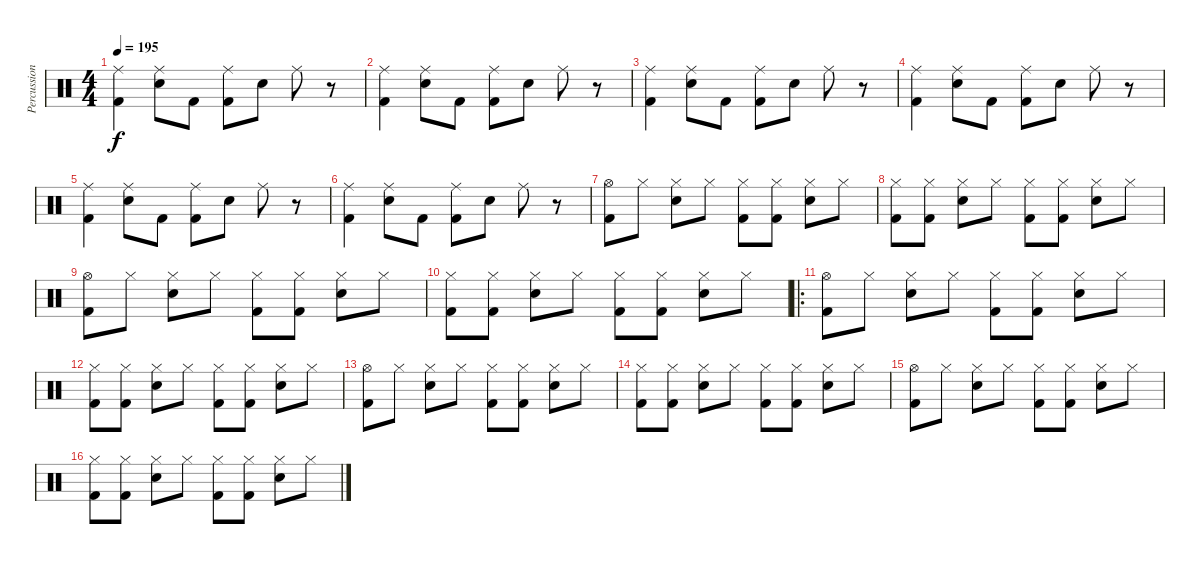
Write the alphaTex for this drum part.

\track ("Percussion" "Percussion") {instrument percussion}
\staff {score}
\articulation defaults
\ts (4 4)
\tempo 195
\clef neutral
\ks c
("Ride (middle)" "Kick (hit) 2").4{dy f} ("Ride (middle)" "Snare (hit) 2").8 "Kick (hit) 2".8 ("Ride (middle)" "Kick (hit) 2").8 "Snare (hit) 2".8 "Ride (middle)".8 r.8 |
("Ride (middle)" "Kick (hit) 2").4 ("Ride (middle)" "Snare (hit) 2").8 "Kick (hit) 2".8 ("Ride (middle)" "Kick (hit) 2").8 "Snare (hit) 2".8 "Ride (middle)".8 r.8 |
("Ride (middle)" "Kick (hit) 2").4 ("Ride (middle)" "Snare (hit) 2").8 "Kick (hit) 2".8 ("Ride (middle)" "Kick (hit) 2").8 "Snare (hit) 2".8 "Ride (middle)".8 r.8 |
("Ride (middle)" "Kick (hit) 2").4 ("Ride (middle)" "Snare (hit) 2").8 "Kick (hit) 2".8 ("Ride (middle)" "Kick (hit) 2").8 "Snare (hit) 2".8 "Ride (middle)".8 r.8 |
("Ride (middle)" "Kick (hit) 2").4 ("Ride (middle)" "Snare (hit) 2").8 "Kick (hit) 2".8 ("Ride (middle)" "Kick (hit) 2").8 "Snare (hit) 2".8 "Ride (middle)".8 r.8 |
("Ride (middle)" "Kick (hit) 2").4 ("Ride (middle)" "Snare (hit) 2").8 "Kick (hit) 2".8 ("Ride (middle)" "Kick (hit) 2").8 "Snare (hit) 2".8 "Ride (middle)".8 r.8 |
("Hi-Hat (open)" "Kick (hit) 2").8 "Hi-Hat (closed)".8 ("Hi-Hat (closed)" "Snare (hit) 2").8 "Hi-Hat (closed)".8 ("Hi-Hat (closed)" "Kick (hit) 2").8 ("Hi-Hat (closed)" "Kick (hit) 2").8 ("Hi-Hat (closed)" "Snare (hit) 2").8 "Hi-Hat (closed)".8 |
("Hi-Hat (closed)" "Kick (hit) 2").8 ("Hi-Hat (closed)" "Kick (hit) 2").8 ("Hi-Hat (closed)" "Snare (hit) 2").8 "Hi-Hat (closed)".8 ("Hi-Hat (closed)" "Kick (hit) 2").8 ("Hi-Hat (closed)" "Kick (hit) 2").8 ("Hi-Hat (closed)" "Snare (hit) 2").8 "Hi-Hat (closed)".8 |
("Hi-Hat (open)" "Kick (hit) 2").8 "Hi-Hat (closed)".8 ("Hi-Hat (closed)" "Snare (hit) 2").8 "Hi-Hat (closed)".8 ("Hi-Hat (closed)" "Kick (hit) 2").8 ("Hi-Hat (closed)" "Kick (hit) 2").8 ("Hi-Hat (closed)" "Snare (hit) 2").8 "Hi-Hat (closed)".8 |
("Hi-Hat (closed)" "Kick (hit) 2").8 ("Hi-Hat (closed)" "Kick (hit) 2").8 ("Hi-Hat (closed)" "Snare (hit) 2").8 "Hi-Hat (closed)".8 ("Hi-Hat (closed)" "Kick (hit) 2").8 ("Hi-Hat (closed)" "Kick (hit) 2").8 ("Hi-Hat (closed)" "Snare (hit) 2").8 "Hi-Hat (closed)".8 |
\ro
("Hi-Hat (open)" "Kick (hit) 2").8 "Hi-Hat (closed)".8 ("Hi-Hat (closed)" "Snare (hit) 2").8 "Hi-Hat (closed)".8 ("Hi-Hat (closed)" "Kick (hit) 2").8 ("Hi-Hat (closed)" "Kick (hit) 2").8 ("Hi-Hat (closed)" "Snare (hit) 2").8 "Hi-Hat (closed)".8 |
("Hi-Hat (closed)" "Kick (hit) 2").8 ("Hi-Hat (closed)" "Kick (hit) 2").8 ("Hi-Hat (closed)" "Snare (hit) 2").8 "Hi-Hat (closed)".8 ("Hi-Hat (closed)" "Kick (hit) 2").8 ("Hi-Hat (closed)" "Kick (hit) 2").8 ("Hi-Hat (closed)" "Snare (hit) 2").8 "Hi-Hat (closed)".8 |
("Hi-Hat (open)" "Kick (hit) 2").8 "Hi-Hat (closed)".8 ("Hi-Hat (closed)" "Snare (hit) 2").8 "Hi-Hat (closed)".8 ("Hi-Hat (closed)" "Kick (hit) 2").8 ("Hi-Hat (closed)" "Kick (hit) 2").8 ("Hi-Hat (closed)" "Snare (hit) 2").8 "Hi-Hat (closed)".8 |
("Hi-Hat (closed)" "Kick (hit) 2").8 ("Hi-Hat (closed)" "Kick (hit) 2").8 ("Hi-Hat (closed)" "Snare (hit) 2").8 "Hi-Hat (closed)".8 ("Hi-Hat (closed)" "Kick (hit) 2").8 ("Hi-Hat (closed)" "Kick (hit) 2").8 ("Hi-Hat (closed)" "Snare (hit) 2").8 "Hi-Hat (closed)".8 |
("Hi-Hat (open)" "Kick (hit) 2").8 "Hi-Hat (closed)".8 ("Hi-Hat (closed)" "Snare (hit) 2").8 "Hi-Hat (closed)".8 ("Hi-Hat (closed)" "Kick (hit) 2").8 ("Hi-Hat (closed)" "Kick (hit) 2").8 ("Hi-Hat (closed)" "Snare (hit) 2").8 "Hi-Hat (closed)".8 |
("Hi-Hat (closed)" "Kick (hit) 2").8 ("Hi-Hat (closed)" "Kick (hit) 2").8 ("Hi-Hat (closed)" "Snare (hit) 2").8 "Hi-Hat (closed)".8 ("Hi-Hat (closed)" "Kick (hit) 2").8 ("Hi-Hat (closed)" "Kick (hit) 2").8 ("Hi-Hat (closed)" "Snare (hit) 2").8 "Hi-Hat (closed)".8
